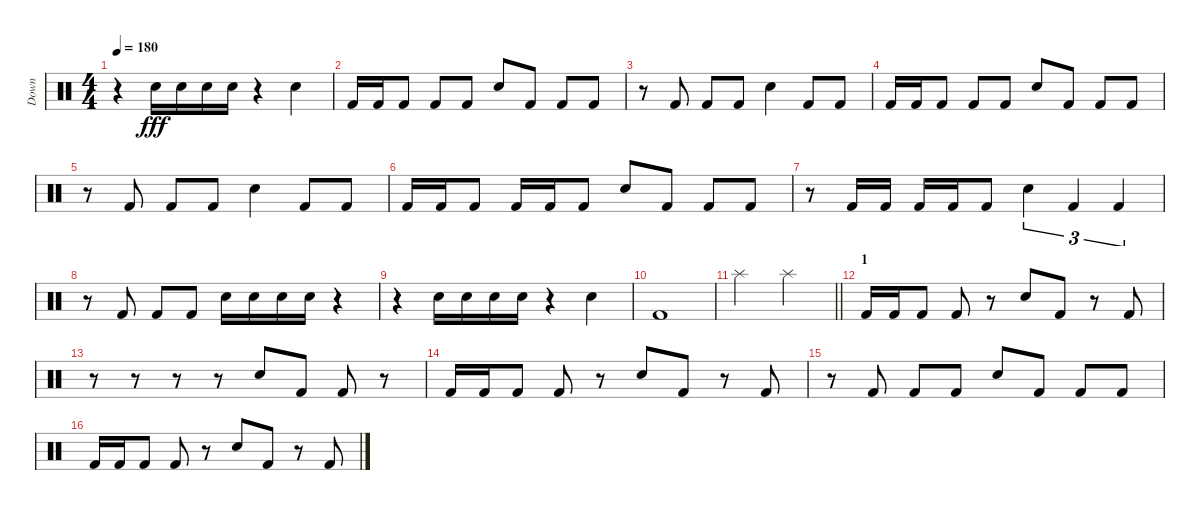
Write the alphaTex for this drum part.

\track ("Down" "Down") {instrument percussion}
\staff {score}
\articulation defaults
\ts (4 4)
\tempo 180
\clef neutral
\ks c
r.4{dy fff} "Electric Snare (hit)".16 "Electric Snare (hit)".16 "Electric Snare (hit)".16 "Electric Snare (hit)".16 r.4 "Electric Snare (hit)".4 |
"Kick (hit) 2".16 "Kick (hit) 2".16 "Kick (hit) 2".8 "Kick (hit) 2".8 "Kick (hit) 2".8 "Electric Snare (hit)".8 "Kick (hit) 2".8 "Kick (hit) 2".8 "Kick (hit) 2".8 |
r.8 "Kick (hit) 2".8 "Kick (hit) 2".8 "Kick (hit) 2".8 "Electric Snare (hit)".4 "Kick (hit) 2".8 "Kick (hit) 2".8 |
"Kick (hit) 2".16 "Kick (hit) 2".16 "Kick (hit) 2".8 "Kick (hit) 2".8 "Kick (hit) 2".8 "Electric Snare (hit)".8 "Kick (hit) 2".8 "Kick (hit) 2".8 "Kick (hit) 2".8 |
r.8 "Kick (hit) 2".8 "Kick (hit) 2".8 "Kick (hit) 2".8 "Electric Snare (hit)".4 "Kick (hit) 2".8 "Kick (hit) 2".8 |
"Kick (hit) 2".16 "Kick (hit) 2".16 "Kick (hit) 2".8 "Kick (hit) 2".16 "Kick (hit) 2".16 "Kick (hit) 2".8 "Electric Snare (hit)".8 "Kick (hit) 2".8 "Kick (hit) 2".8 "Kick (hit) 2".8 |
r.8 "Kick (hit) 2".16 "Kick (hit) 2".16 "Kick (hit) 2".16 "Kick (hit) 2".16 "Kick (hit) 2".8 "Electric Snare (hit)".4{tu (3 2)} "Kick (hit) 2".4{tu (3 2)} "Kick (hit) 2".4{tu (3 2)} |
r.8 "Kick (hit) 2".8 "Kick (hit) 2".8 "Kick (hit) 2".8 "Electric Snare (hit)".16 "Electric Snare (hit)".16 "Electric Snare (hit)".16 "Electric Snare (hit)".16 r.4 |
r.4 "Electric Snare (hit)".16 "Electric Snare (hit)".16 "Electric Snare (hit)".16 "Electric Snare (hit)".16 r.4 "Electric Snare (hit)".4 |
"Kick (hit) 2".1 |
\barLineRight lightlight "Splash (hit)".2 "Splash (hit)".2
|
\section ("" "1")
"Kick (hit) 2".16 "Kick (hit) 2".16 "Kick (hit) 2".8 "Kick (hit) 2".8 r.8 "Electric Snare (hit)".8 "Kick (hit) 2".8 r.8 "Kick (hit) 2".8 |
r.8 r.8 r.8 r.8 "Electric Snare (hit)".8 "Kick (hit) 2".8 "Kick (hit) 2".8 r.8 |
"Kick (hit) 2".16 "Kick (hit) 2".16 "Kick (hit) 2".8 "Kick (hit) 2".8 r.8 "Electric Snare (hit)".8 "Kick (hit) 2".8 r.8 "Kick (hit) 2".8 |
r.8 "Kick (hit) 2".8 "Kick (hit) 2".8 "Kick (hit) 2".8 "Electric Snare (hit)".8 "Kick (hit) 2".8 "Kick (hit) 2".8 "Kick (hit) 2".8 |
"Kick (hit) 2".16 "Kick (hit) 2".16 "Kick (hit) 2".8 "Kick (hit) 2".8 r.8 "Electric Snare (hit)".8 "Kick (hit) 2".8 r.8 "Kick (hit) 2".8
